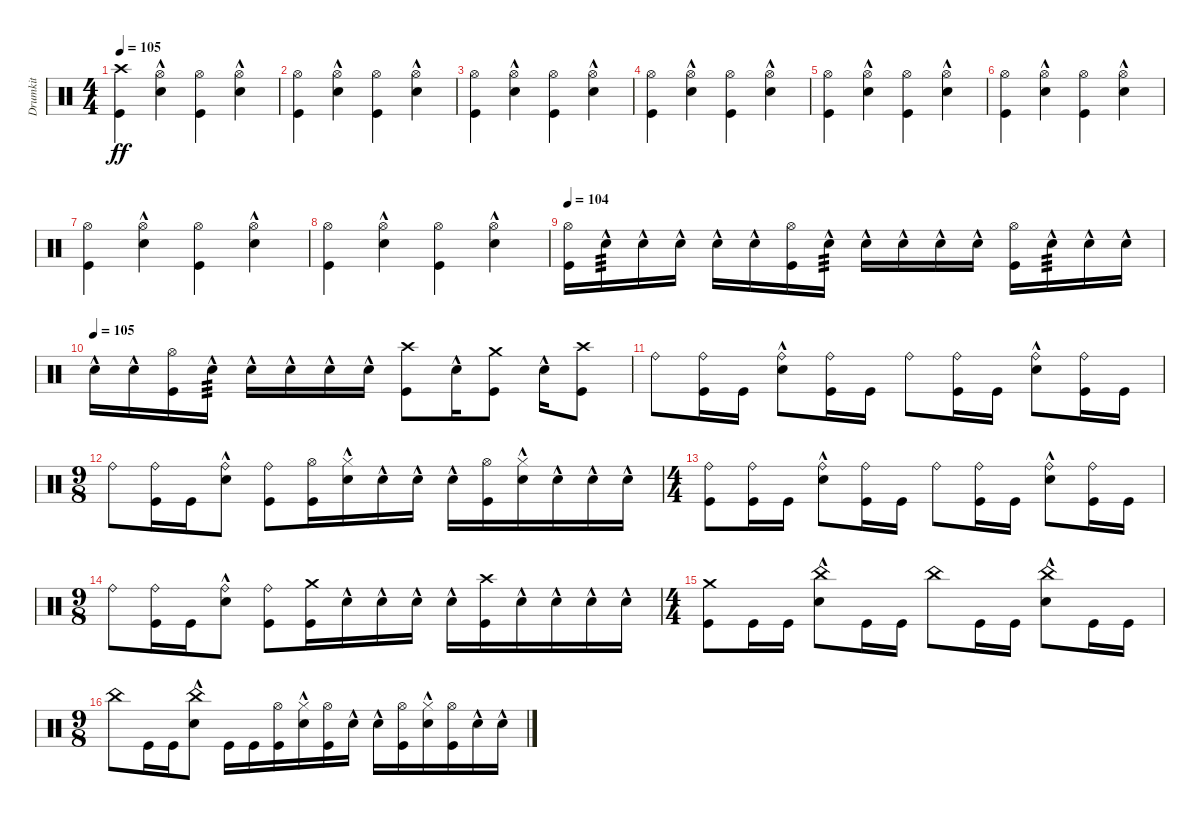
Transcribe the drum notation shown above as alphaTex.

\track ("Drumkit" "Drumkit") {instrument percussion}
\staff {score}
\articulation defaults
\ts (4 4)
\tempo 105
\clef neutral
\ks c
("Kick (hit)" "Crash high (hit)").4{dy ff} ("Snare (hit) 2"{hac} "Hi-Hat (open)").4 ("Kick (hit)" "Hi-Hat (open)").4 ("Snare (hit) 2"{hac} "Hi-Hat (open)").4 |
\ks aminor
("Kick (hit)" "Hi-Hat (open)").4 ("Snare (hit) 2"{hac} "Hi-Hat (open)").4 ("Kick (hit)" "Hi-Hat (open)").4 ("Snare (hit) 2"{hac} "Hi-Hat (open)").4 |
("Kick (hit)" "Hi-Hat (open)").4 ("Snare (hit) 2"{hac} "Hi-Hat (open)").4 ("Kick (hit)" "Hi-Hat (open)").4 ("Snare (hit) 2"{hac} "Hi-Hat (open)").4 |
\ks c
("Kick (hit)" "Hi-Hat (open)").4 ("Snare (hit) 2"{hac} "Hi-Hat (open)").4 ("Kick (hit)" "Hi-Hat (open)").4 ("Snare (hit) 2"{hac} "Hi-Hat (open)").4 |
("Kick (hit)" "Hi-Hat (open)").4 ("Snare (hit) 2"{hac} "Hi-Hat (open)").4 ("Kick (hit)" "Hi-Hat (open)").4 ("Snare (hit) 2"{hac} "Hi-Hat (open)").4 |
\ks aminor
("Kick (hit)" "Hi-Hat (open)").4 ("Snare (hit) 2"{hac} "Hi-Hat (open)").4 ("Kick (hit)" "Hi-Hat (open)").4 ("Snare (hit) 2"{hac} "Hi-Hat (open)").4 |
("Kick (hit)" "Hi-Hat (open)").4 ("Snare (hit) 2"{hac} "Hi-Hat (open)").4 ("Kick (hit)" "Hi-Hat (open)").4 ("Snare (hit) 2"{hac} "Hi-Hat (open)").4 |
\ks c
("Kick (hit)" "Hi-Hat (open)").4 ("Snare (hit) 2"{hac} "Hi-Hat (open)").4 ("Kick (hit)" "Hi-Hat (open)").4 ("Snare (hit) 2"{hac} "Hi-Hat (open)").4 |
\tempo 104
("Kick (hit)" "Hi-Hat (open)").16 "Snare (hit) 2"{hac}.16{tp 3} "Snare (hit) 2"{hac}.16 "Snare (hit) 2"{hac}.16 "Snare (hit) 2"{hac}.16 "Snare (hit) 2"{hac}.16 ("Kick (hit)" "Hi-Hat (open)").16 "Snare (hit) 2"{hac}.16{tp 3} "Snare (hit) 2"{hac}.16 "Snare (hit) 2"{hac}.16 "Snare (hit) 2"{hac}.16 "Snare (hit) 2"{hac}.16 ("Kick (hit)" "Hi-Hat (open)").16 "Snare (hit) 2"{hac}.16{tp 3} "Snare (hit) 2"{hac}.16 "Snare (hit) 2"{hac}.16 |
\tempo 105
\ks aminor "Snare (hit) 2"{hac}.16 "Snare (hit) 2"{hac}.16
("Kick (hit)" "Hi-Hat (open)").16 "Snare (hit) 2"{hac}.16{tp 3} "Snare (hit) 2"{hac}.16 "Snare (hit) 2"{hac}.16 "Snare (hit) 2"{hac}.16 "Snare (hit) 2"{hac}.16 ("Kick (hit)" "Crash high (hit)").8 "Snare (hit) 2"{hac}.16 ("Kick (hit)" "Crash medium (hit)").8 "Snare (hit) 2"{hac}.16 ("Kick (hit)" "Crash high (hit)").8 |
"Ride (bell)".8 ("Kick (hit)" "Ride (bell)").16 "Kick (hit)".16 ("Snare (hit) 2"{hac} "Ride (bell)").8 ("Kick (hit)" "Ride (bell)").16 "Kick (hit)".16 "Ride (bell)".8 ("Kick (hit)" "Ride (bell)").16 "Kick (hit)".16 ("Snare (hit) 2"{hac} "Ride (bell)").8 ("Kick (hit)" "Ride (bell)").16 "Kick (hit)".16 |
\ts (9 8)
"Ride (bell)".8 ("Kick (hit)" "Ride (bell)").16 "Kick (hit)".16 ("Snare (hit) 2"{hac} "Ride (bell)").8 ("Kick (hit)" "Ride (bell)").8 ("Kick (hit)" "Hi-Hat (open)").16 ("Snare (hit) 2"{hac} "Hi-Hat (closed)").16 "Snare (hit) 2"{hac}.16 "Snare (hit) 2"{hac}.16 "Snare (hit) 2"{hac}.16 ("Kick (hit)" "Hi-Hat (open)").16 ("Snare (hit) 2"{hac} "Hi-Hat (closed)").16 "Snare (hit) 2"{hac}.16 "Snare (hit) 2"{hac}.16 "Snare (hit) 2"{hac}.16 |
\ts (4 4)
("Kick (hit)" "Ride (bell)").8 ("Kick (hit)" "Ride (bell)").16 "Kick (hit)".16 ("Snare (hit) 2"{hac} "Ride (bell)").8 ("Kick (hit)" "Ride (bell)").16 "Kick (hit)".16 "Ride (bell)".8 ("Kick (hit)" "Ride (bell)").16 "Kick (hit)".16 ("Snare (hit) 2"{hac} "Ride (bell)").8 ("Kick (hit)" "Ride (bell)").16 "Kick (hit)".16 |
\ts (9 8)
"Ride (bell)".8 ("Kick (hit)" "Ride (bell)").16 "Kick (hit)".16 ("Snare (hit) 2"{hac} "Ride (bell)").8 ("Kick (hit)" "Ride (bell)").8 ("Kick (hit)" "Crash medium (hit)").16 "Snare (hit) 2"{hac}.16 "Snare (hit) 2"{hac}.16 "Snare (hit) 2"{hac}.16 "Snare (hit) 2"{hac}.16 ("Kick (hit)" "Crash high (hit)").16 "Snare (hit) 2"{hac}.16 "Snare (hit) 2"{hac}.16 "Snare (hit) 2"{hac}.16 "Snare (hit) 2"{hac}.16 |
\ts (4 4)
("Kick (hit)" "Crash medium (hit)").8 "Kick (hit)".16 "Kick (hit)".16 ("Snare (hit) 2"{hac} "China (hit)").8 "Kick (hit)".16 "Kick (hit)".16 "China (hit)".8 "Kick (hit)".16 "Kick (hit)".16 ("China (hit)" "Snare (hit) 2"{hac}).8 "Kick (hit)".16 "Kick (hit)".16 |
\ts (9 8)
"China (hit)".8 "Kick (hit)".16 "Kick (hit)".16 ("China (hit)" "Snare (hit) 2"{hac}).8 "Kick (hit)".16 "Kick (hit)".16 ("Kick (hit)" "Hi-Hat (open)").16 ("Snare (hit) 2"{hac} "Hi-Hat (closed)").16 ("Kick (hit)" "Hi-Hat (open)").16 "Snare (hit) 2"{hac}.16 "Snare (hit) 2"{hac}.16 ("Kick (hit)" "Hi-Hat (open)").16 ("Snare (hit) 2"{hac} "Hi-Hat (closed)").16 ("Kick (hit)" "Hi-Hat (open)").16 "Snare (hit) 2"{hac}.16 "Snare (hit) 2"{hac}.16
